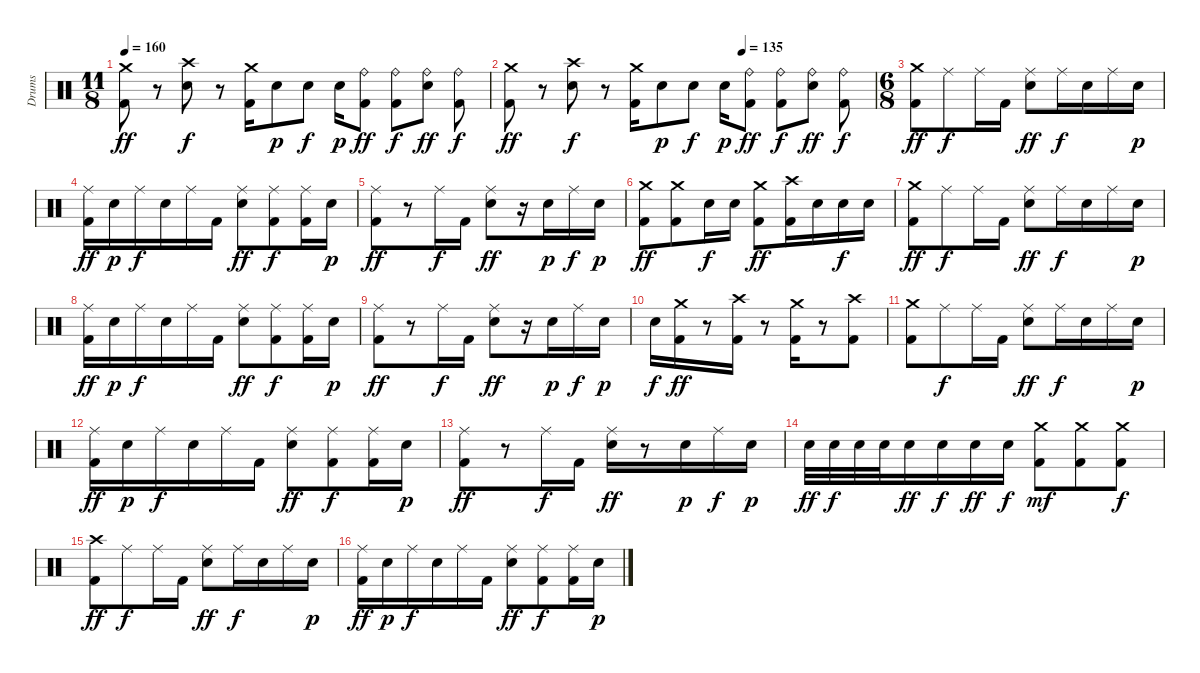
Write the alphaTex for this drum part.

\track ("Drums" "Drums") {instrument percussion}
\staff {score}
\articulation defaults
\ts (11 8)
\tempo 160
\clef neutral
\ks c
("Kick (hit) 2" "Crash medium (hit)").8{dy ff} r.8 ("Electric Snare (hit)" "Crash high (hit)").8{dy f} r.8 ("Kick (hit) 2" "Crash medium (hit)").16 "Electric Snare (hit)".8{dy p} "Electric Snare (hit)".8{dy f} "Electric Snare (hit)".16{dy p} ("Kick (hit) 2" "Ride (bell)").8{dy ff} ("Kick (hit) 2" "Ride (bell)").8{dy f} ("Electric Snare (hit)" "Ride (bell)").8{dy ff} ("Kick (hit) 2" "Ride (bell)").8{dy f} |
\tempo (135 0.6363636363636364)
("Kick (hit) 2" "Crash medium (hit)").8{dy ff} r.8 ("Electric Snare (hit)" "Crash high (hit)").8{dy f} r.8 ("Kick (hit) 2" "Crash medium (hit)").16 "Electric Snare (hit)".8{dy p} "Electric Snare (hit)".8{dy f} "Electric Snare (hit)".16{dy p} ("Kick (hit) 2" "Ride (bell)").8{dy ff} ("Kick (hit) 2" "Ride (bell)").8{dy f} ("Electric Snare (hit)" "Ride (bell)").8{dy ff} ("Kick (hit) 2" "Ride (bell)").8{dy f} |
\ts (6 8)
("Kick (hit) 2" "Crash medium (hit)").8{dy ff} "Ride (middle)".8{dy f} "Ride (middle)".16 "Kick (hit) 2".16 ("Electric Snare (hit)" "Ride (middle)").8{dy ff} "Ride (middle)".16{dy f} "Electric Snare (hit)".16 "Ride (middle)".16 "Electric Snare (hit)".16{dy p} |
("Kick (hit) 2" "Ride (middle)").16{dy ff} "Electric Snare (hit)".16{dy p} "Ride (middle)".16{dy f} "Electric Snare (hit)".16 "Ride (middle)".16 "Kick (hit) 2".16 ("Electric Snare (hit)" "Ride (middle)").8{dy ff} ("Kick (hit) 2" "Ride (middle)").8{dy f} ("Kick (hit) 2" "Ride (middle)").16 "Electric Snare (hit)".16{dy p} |
("Kick (hit) 2" "Ride (middle)").8{dy ff} r.8 "Ride (middle)".16{dy f} "Kick (hit) 2".16 ("Electric Snare (hit)" "Ride (middle)").8{dy ff} r.16 "Electric Snare (hit)".16{dy p} "Ride (middle)".16{dy f} "Electric Snare (hit)".16{dy p} |
("Kick (hit) 2" "Crash medium (hit)").8{dy ff} ("Kick (hit) 2" "Crash medium (hit)").8 "Electric Snare (hit)".16{dy f} "Electric Snare (hit)".16 ("Kick (hit) 2" "Crash medium (hit)").8{dy ff} ("Kick (hit) 2" "Crash high (hit)").16 "Electric Snare (hit)".16 "Electric Snare (hit)".16{dy f} "Electric Snare (hit)".16 |
("Kick (hit) 2" "Crash medium (hit)").8{dy ff} "Ride (middle)".8{dy f} "Ride (middle)".16 "Kick (hit) 2".16 ("Electric Snare (hit)" "Ride (middle)").8{dy ff} "Ride (middle)".16{dy f} "Electric Snare (hit)".16 "Ride (middle)".16 "Electric Snare (hit)".16{dy p} |
("Kick (hit) 2" "Ride (middle)").16{dy ff} "Electric Snare (hit)".16{dy p} "Ride (middle)".16{dy f} "Electric Snare (hit)".16 "Ride (middle)".16 "Kick (hit) 2".16 ("Electric Snare (hit)" "Ride (middle)").8{dy ff} ("Kick (hit) 2" "Ride (middle)").8{dy f} ("Kick (hit) 2" "Ride (middle)").16 "Electric Snare (hit)".16{dy p} |
("Kick (hit) 2" "Ride (middle)").8{dy ff} r.8 "Ride (middle)".16{dy f} "Kick (hit) 2".16 ("Electric Snare (hit)" "Ride (middle)").8{dy ff} r.16 "Electric Snare (hit)".16{dy p} "Ride (middle)".16{dy f} "Electric Snare (hit)".16{dy p} |
"Electric Snare (hit)".16{dy f} ("Kick (hit) 2" "Crash medium (hit)").16{dy ff} r.8 ("Kick (hit) 2" "Crash high (hit)").16 r.8 ("Kick (hit) 2" "Crash medium (hit)").16 r.8 ("Kick (hit) 2" "Crash high (hit)").8 |
("Kick (hit) 2" "Crash medium (hit)").8 "Ride (middle)".8{dy f} "Ride (middle)".16 "Kick (hit) 2".16 ("Electric Snare (hit)" "Ride (middle)").8{dy ff} "Ride (middle)".16{dy f} "Electric Snare (hit)".16 "Ride (middle)".16 "Electric Snare (hit)".16{dy p} |
("Kick (hit) 2" "Ride (middle)").16{dy ff} "Electric Snare (hit)".16{dy p} "Ride (middle)".16{dy f} "Electric Snare (hit)".16 "Ride (middle)".16 "Kick (hit) 2".16 ("Electric Snare (hit)" "Ride (middle)").8{dy ff} ("Kick (hit) 2" "Ride (middle)").8{dy f} ("Kick (hit) 2" "Ride (middle)").16 "Electric Snare (hit)".16{dy p} |
("Kick (hit) 2" "Ride (middle)").8{dy ff} r.8 "Ride (middle)".16{dy f} "Kick (hit) 2".16 ("Electric Snare (hit)" "Ride (middle)").16{dy ff} r.8 "Electric Snare (hit)".16{dy p} "Ride (middle)".16{dy f} "Electric Snare (hit)".16{dy p} |
"Electric Snare (hit)".32{dy ff} "Electric Snare (hit)".32{dy f} "Electric Snare (hit)".32 "Electric Snare (hit)".32 "Electric Snare (hit)".16{dy ff} "Electric Snare (hit)".16{dy f} "Electric Snare (hit)".16{dy ff} "Electric Snare (hit)".16{dy f} ("Kick (hit) 2" "Crash medium (hit)").8{dy mf} ("Kick (hit) 2" "Crash medium (hit)").8 ("Kick (hit) 2" "Crash medium (hit)").8{dy f} |
("Kick (hit) 2" "Crash high (hit)").8{dy ff} "Ride (middle)".8{dy f} "Ride (middle)".16 "Kick (hit) 2".16 ("Electric Snare (hit)" "Ride (middle)").8{dy ff} "Ride (middle)".16{dy f} "Electric Snare (hit)".16 "Ride (middle)".16 "Electric Snare (hit)".16{dy p} |
("Kick (hit) 2" "Ride (middle)").16{dy ff} "Electric Snare (hit)".16{dy p} "Ride (middle)".16{dy f} "Electric Snare (hit)".16 "Ride (middle)".16 "Kick (hit) 2".16 ("Electric Snare (hit)" "Ride (middle)").8{dy ff} ("Kick (hit) 2" "Ride (middle)").8{dy f} ("Kick (hit) 2" "Ride (middle)").16 "Electric Snare (hit)".16{dy p}
